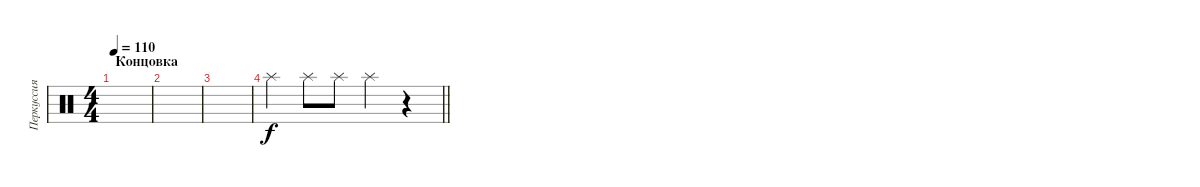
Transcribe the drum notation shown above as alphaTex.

\track ("Перкуссия" "Перкуссия") {instrument percussion}
\staff {score}
\articulation defaults
\ts (4 4)
\section ("" "Концовка")
\tempo 110
\clef neutral
\ks c
|
|
|
\barLineRight lightlight "Splash (hit)".4{balance 0} "Splash (hit)".8{balance 16} "Splash (hit)".8{balance 0} "Splash (hit)".4{balance 16}
r.4
